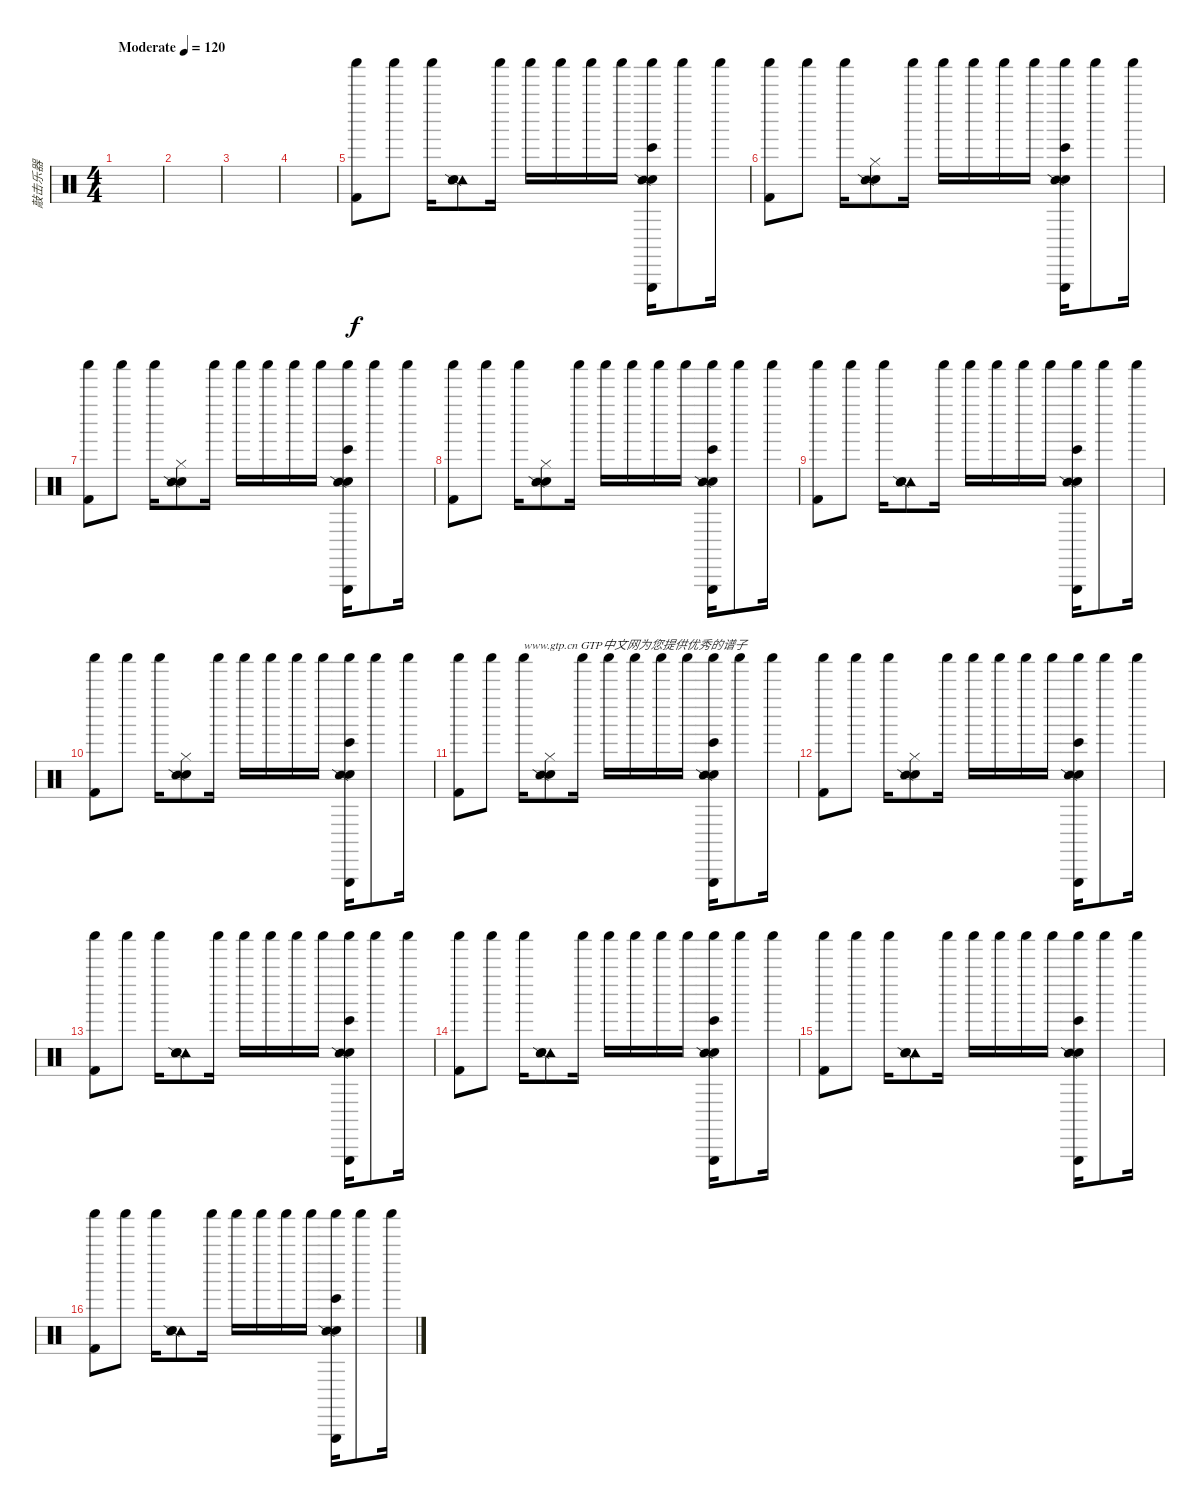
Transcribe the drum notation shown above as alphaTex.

\track ("敲击乐器" "敲击乐器") {instrument percussion}
\staff {score}
\articulation defaults
\ts (4 4)
\tempo (120 "Moderate")
\clef neutral
\ks c
|
|
|
|
("Shaker (hit)" "Kick (hit) 2").8 "Shaker (hit)".8 "Shaker (hit)".16 ("Tambourine (hit)" "Metronome (bell)" "Snare (side stick) 2").8 "Shaker (hit)".16 "Shaker (hit)".16 "Shaker (hit)".16 "Shaker (hit)".16 "Shaker (hit)".16 ("Shaker (hit)" "Metronome (bell)" "Snare (side stick) 2" "Bongo High (hit)" "Triangle (hit)").16 "Shaker (hit)".8 "Shaker (hit)".16 |
("Shaker (hit)" "Kick (hit) 2").8 "Shaker (hit)".8 "Shaker (hit)".16 ("Hi-Hat (closed)" "Metronome (bell)" "Snare (side stick) 2").8 "Shaker (hit)".16 "Shaker (hit)".16 "Shaker (hit)".16 "Shaker (hit)".16 "Shaker (hit)".16 ("Shaker (hit)" "Metronome (bell)" "Snare (side stick) 2" "Bongo High (hit)" "Triangle (hit)").16 "Shaker (hit)".8 "Shaker (hit)".16 |
("Shaker (hit)" "Kick (hit) 2").8 "Shaker (hit)".8 "Shaker (hit)".16 ("Hi-Hat (closed)" "Metronome (bell)" "Snare (side stick) 2").8 "Shaker (hit)".16 "Shaker (hit)".16 "Shaker (hit)".16 "Shaker (hit)".16 "Shaker (hit)".16 ("Shaker (hit)" "Metronome (bell)" "Snare (side stick) 2" "Bongo High (hit)" "Triangle (hit)").16 "Shaker (hit)".8 "Shaker (hit)".16 |
("Shaker (hit)" "Kick (hit) 2").8 "Shaker (hit)".8 "Shaker (hit)".16 ("Hi-Hat (closed)" "Metronome (bell)" "Snare (side stick) 2").8 "Shaker (hit)".16 "Shaker (hit)".16 "Shaker (hit)".16 "Shaker (hit)".16 "Shaker (hit)".16 ("Shaker (hit)" "Metronome (bell)" "Snare (side stick) 2" "Bongo High (hit)" "Triangle (hit)").16 "Shaker (hit)".8 "Shaker (hit)".16 |
("Shaker (hit)" "Kick (hit) 2").8 "Shaker (hit)".8 "Shaker (hit)".16 ("Tambourine (hit)" "Metronome (bell)" "Snare (side stick) 2").8 "Shaker (hit)".16 "Shaker (hit)".16 "Shaker (hit)".16 "Shaker (hit)".16 "Shaker (hit)".16 ("Shaker (hit)" "Metronome (bell)" "Snare (side stick) 2" "Bongo High (hit)" "Triangle (hit)").16 "Shaker (hit)".8 "Shaker (hit)".16 |
("Shaker (hit)" "Kick (hit) 2").8 "Shaker (hit)".8 "Shaker (hit)".16 ("Hi-Hat (closed)" "Metronome (bell)" "Snare (side stick) 2").8 "Shaker (hit)".16 "Shaker (hit)".16 "Shaker (hit)".16 "Shaker (hit)".16 "Shaker (hit)".16 ("Shaker (hit)" "Metronome (bell)" "Snare (side stick) 2" "Bongo High (hit)" "Triangle (hit)").16 "Shaker (hit)".8 "Shaker (hit)".16 |
("Shaker (hit)" "Kick (hit) 2").8 "Shaker (hit)".8 "Shaker (hit)".16{txt "www.gtp.cn GTP中文网为您提供优秀的谱子"} ("Hi-Hat (closed)" "Metronome (bell)" "Snare (side stick) 2").8 "Shaker (hit)".16 "Shaker (hit)".16 "Shaker (hit)".16 "Shaker (hit)".16 "Shaker (hit)".16 ("Shaker (hit)" "Metronome (bell)" "Snare (side stick) 2" "Bongo High (hit)" "Triangle (hit)").16 "Shaker (hit)".8 "Shaker (hit)".16 |
("Shaker (hit)" "Kick (hit) 2").8 "Shaker (hit)".8 "Shaker (hit)".16 ("Hi-Hat (closed)" "Metronome (bell)" "Snare (side stick) 2").8 "Shaker (hit)".16 "Shaker (hit)".16 "Shaker (hit)".16 "Shaker (hit)".16 "Shaker (hit)".16 ("Shaker (hit)" "Metronome (bell)" "Snare (side stick) 2" "Bongo High (hit)" "Triangle (hit)").16 "Shaker (hit)".8 "Shaker (hit)".16 |
("Shaker (hit)" "Kick (hit) 2").8 "Shaker (hit)".8 "Shaker (hit)".16 ("Tambourine (hit)" "Metronome (bell)" "Snare (side stick) 2").8 "Shaker (hit)".16 "Shaker (hit)".16 "Shaker (hit)".16 "Shaker (hit)".16 "Shaker (hit)".16 ("Shaker (hit)" "Metronome (bell)" "Snare (side stick) 2" "Bongo High (hit)" "Triangle (hit)").16 "Shaker (hit)".8 "Shaker (hit)".16 |
("Shaker (hit)" "Kick (hit) 2").8 "Shaker (hit)".8 "Shaker (hit)".16 ("Tambourine (hit)" "Metronome (bell)" "Snare (side stick) 2").8 "Shaker (hit)".16 "Shaker (hit)".16 "Shaker (hit)".16 "Shaker (hit)".16 "Shaker (hit)".16 ("Shaker (hit)" "Metronome (bell)" "Snare (side stick) 2" "Bongo High (hit)" "Triangle (hit)").16 "Shaker (hit)".8 "Shaker (hit)".16 |
("Shaker (hit)" "Kick (hit) 2").8 "Shaker (hit)".8 "Shaker (hit)".16 ("Tambourine (hit)" "Metronome (bell)" "Snare (side stick) 2").8 "Shaker (hit)".16 "Shaker (hit)".16 "Shaker (hit)".16 "Shaker (hit)".16 "Shaker (hit)".16 ("Shaker (hit)" "Metronome (bell)" "Snare (side stick) 2" "Bongo High (hit)" "Triangle (hit)").16 "Shaker (hit)".8 "Shaker (hit)".16 |
("Shaker (hit)" "Kick (hit) 2").8 "Shaker (hit)".8 "Shaker (hit)".16 ("Tambourine (hit)" "Metronome (bell)" "Snare (side stick) 2").8 "Shaker (hit)".16 "Shaker (hit)".16 "Shaker (hit)".16 "Shaker (hit)".16 "Shaker (hit)".16 ("Shaker (hit)" "Metronome (bell)" "Snare (side stick) 2" "Bongo High (hit)" "Triangle (hit)").16 "Shaker (hit)".8 "Shaker (hit)".16
